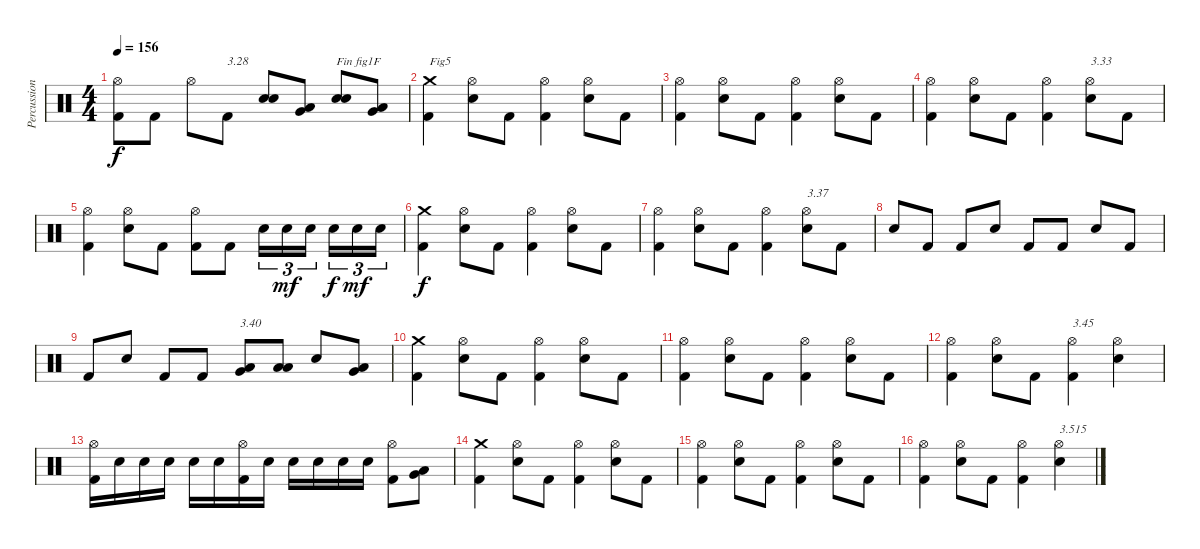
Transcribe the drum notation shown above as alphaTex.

\track ("Percussions" "Percussion") {instrument percussion}
\staff {score}
\articulation defaults
\ts (4 4)
\tempo 156
\clef neutral
\ks c
("Kick (hit) 2" "Hi-Hat (open)").8{dy f} "Kick (hit) 2".8 "Hi-Hat (open)".8 "Kick (hit) 2".8{txt "3.28"} ("Electric Snare (hit)" "Electric Snare (hit)").8 ("Very Low Tom (hit)" "Low Tom (hit)").8 ("Electric Snare (hit)" "Electric Snare (hit)").8{txt "Fin fig1F"} ("Very Low Tom (hit)" "Low Floor Tom (hit)").8 |
("Kick (hit) 2" "Crash medium (hit)").4{txt "Fig5"} ("Electric Snare (hit)" "Hi-Hat (open)").8 "Kick (hit) 2".8 ("Kick (hit) 2" "Hi-Hat (open)").4 ("Electric Snare (hit)" "Hi-Hat (open)").8 "Kick (hit) 2".8 |
("Kick (hit) 2" "Hi-Hat (open)").4 ("Electric Snare (hit)" "Hi-Hat (open)").8 "Kick (hit) 2".8 ("Kick (hit) 2" "Hi-Hat (open)").4 ("Electric Snare (hit)" "Hi-Hat (open)").8 "Kick (hit) 2".8 |
("Kick (hit) 2" "Hi-Hat (open)").4 ("Electric Snare (hit)" "Hi-Hat (open)").8 "Kick (hit) 2".8 ("Kick (hit) 2" "Hi-Hat (open)").4 ("Electric Snare (hit)" "Hi-Hat (open)").8{txt "3.33"} "Kick (hit) 2".8 |
("Kick (hit) 2" "Hi-Hat (open)").4 ("Electric Snare (hit)" "Hi-Hat (open)").8 "Kick (hit) 2".8 ("Kick (hit) 2" "Hi-Hat (open)").8 "Kick (hit) 2".8 "Electric Snare (hit)".16{tu (3 2)} "Electric Snare (hit)".16{tu (3 2) dy mf} "Electric Snare (hit)".16{tu (3 2)} "Electric Snare (hit)".16{tu (3 2) dy f} "Electric Snare (hit)".16{tu (3 2) dy mf} "Electric Snare (hit)".16{tu (3 2)} |
("Kick (hit) 2" "Crash medium (hit)").4{dy f} ("Electric Snare (hit)" "Hi-Hat (open)").8 "Kick (hit) 2".8 ("Kick (hit) 2" "Hi-Hat (open)").4 ("Electric Snare (hit)" "Hi-Hat (open)").8 "Kick (hit) 2".8 |
("Kick (hit) 2" "Hi-Hat (open)").4 ("Electric Snare (hit)" "Hi-Hat (open)").8 "Kick (hit) 2".8 ("Kick (hit) 2" "Hi-Hat (open)").4 ("Electric Snare (hit)" "Hi-Hat (open)").8{txt "3.37"} "Kick (hit) 2".8 |
"Electric Snare (hit)".8 "Kick (hit) 2".8 "Kick (hit) 2".8 "Electric Snare (hit)".8 "Kick (hit) 2".8 "Kick (hit) 2".8 "Electric Snare (hit)".8 "Kick (hit) 2".8 |
"Kick (hit) 2".8 "Electric Snare (hit)".8 "Kick (hit) 2".8 "Kick (hit) 2".8 ("Low Floor Tom (hit)" "Very Low Tom (hit)").8{txt "3.40"} ("Low Floor Tom (hit)" "Low Tom (hit)").8 "Electric Snare (hit)".8 ("Low Floor Tom (hit)" "Very Low Tom (hit)").8 |
("Kick (hit) 2" "Crash medium (hit)").4 ("Electric Snare (hit)" "Hi-Hat (open)").8 "Kick (hit) 2".8 ("Kick (hit) 2" "Hi-Hat (open)").4 ("Electric Snare (hit)" "Hi-Hat (open)").8 "Kick (hit) 2".8 |
("Kick (hit) 2" "Hi-Hat (open)").4 ("Electric Snare (hit)" "Hi-Hat (open)").8 "Kick (hit) 2".8 ("Kick (hit) 2" "Hi-Hat (open)").4 ("Electric Snare (hit)" "Hi-Hat (open)").8 "Kick (hit) 2".8 |
("Kick (hit) 2" "Hi-Hat (open)").4 ("Electric Snare (hit)" "Hi-Hat (open)").8 "Kick (hit) 2".8 ("Kick (hit) 2" "Hi-Hat (open)").4{txt "3.45"} ("Electric Snare (hit)" "Hi-Hat (open)").4 |
("Kick (hit) 2" "Hi-Hat (open)").16 "Electric Snare (hit)".16 "Electric Snare (hit)".16 "Electric Snare (hit)".16 "Electric Snare (hit)".16 "Electric Snare (hit)".16 ("Kick (hit) 2" "Hi-Hat (open)").16 "Electric Snare (hit)".16 "Electric Snare (hit)".16 "Electric Snare (hit)".16 "Electric Snare (hit)".16 "Electric Snare (hit)".16 ("Kick (hit) 2" "Hi-Hat (open)").8 ("Very Low Tom (hit)" "Low Tom (hit)").8 |
("Kick (hit) 2" "Crash medium (hit)").4 ("Electric Snare (hit)" "Hi-Hat (open)").8 "Kick (hit) 2".8 ("Kick (hit) 2" "Hi-Hat (open)").4 ("Electric Snare (hit)" "Hi-Hat (open)").8 "Kick (hit) 2".8 |
("Kick (hit) 2" "Hi-Hat (open)").4 ("Electric Snare (hit)" "Hi-Hat (open)").8 "Kick (hit) 2".8 ("Kick (hit) 2" "Hi-Hat (open)").4 ("Electric Snare (hit)" "Hi-Hat (open)").8 "Kick (hit) 2".8 |
("Kick (hit) 2" "Hi-Hat (open)").4 ("Electric Snare (hit)" "Hi-Hat (open)").8 "Kick (hit) 2".8 ("Kick (hit) 2" "Hi-Hat (open)").4 ("Electric Snare (hit)" "Hi-Hat (open)").4{txt "3.515"}
